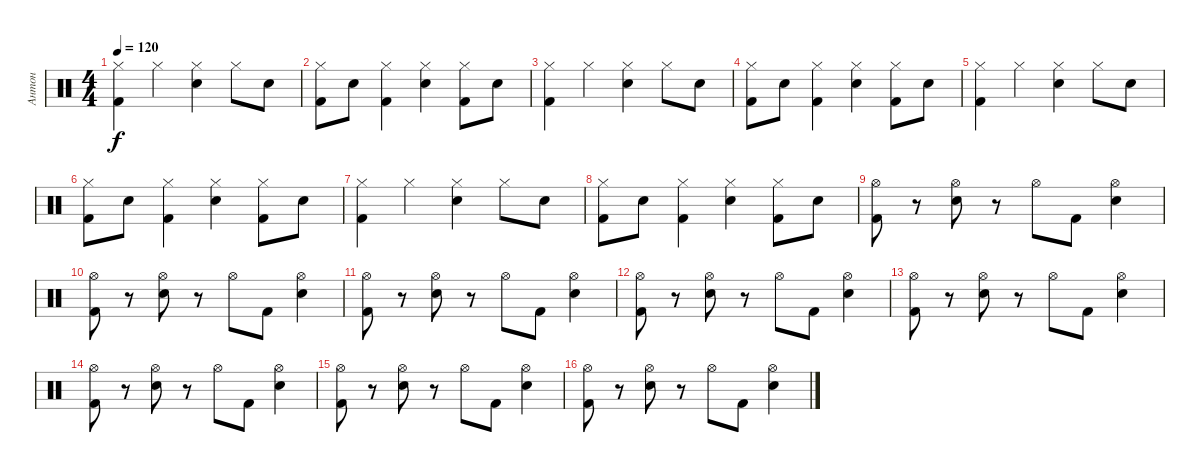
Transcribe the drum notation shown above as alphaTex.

\track ("Антон" "Антон") {instrument percussion}
\staff {score}
\articulation defaults
\ts (4 4)
\tempo 120
\clef neutral
\ks c
("Hi-Hat (closed)" "Kick (hit) 2").4{dy f} "Hi-Hat (closed)".4 ("Hi-Hat (closed)" "Electric Snare (hit)").4 "Hi-Hat (closed)".8 "Electric Snare (hit)".8 |
("Hi-Hat (closed)" "Kick (hit) 2").8 "Electric Snare (hit)".8 ("Hi-Hat (closed)" "Kick (hit) 2").4 ("Hi-Hat (closed)" "Electric Snare (hit)").4 ("Hi-Hat (closed)" "Kick (hit) 2").8 "Electric Snare (hit)".8 |
("Hi-Hat (closed)" "Kick (hit) 2").4 "Hi-Hat (closed)".4 ("Hi-Hat (closed)" "Electric Snare (hit)").4 "Hi-Hat (closed)".8 "Electric Snare (hit)".8 |
("Hi-Hat (closed)" "Kick (hit) 2").8 "Electric Snare (hit)".8 ("Hi-Hat (closed)" "Kick (hit) 2").4 ("Hi-Hat (closed)" "Electric Snare (hit)").4 ("Hi-Hat (closed)" "Kick (hit) 2").8 "Electric Snare (hit)".8 |
("Hi-Hat (closed)" "Kick (hit) 2").4 "Hi-Hat (closed)".4 ("Hi-Hat (closed)" "Electric Snare (hit)").4 "Hi-Hat (closed)".8 "Electric Snare (hit)".8 |
("Hi-Hat (closed)" "Kick (hit) 2").8 "Electric Snare (hit)".8 ("Hi-Hat (closed)" "Kick (hit) 2").4 ("Hi-Hat (closed)" "Electric Snare (hit)").4 ("Hi-Hat (closed)" "Kick (hit) 2").8 "Electric Snare (hit)".8 |
("Hi-Hat (closed)" "Kick (hit) 2").4 "Hi-Hat (closed)".4 ("Hi-Hat (closed)" "Electric Snare (hit)").4 "Hi-Hat (closed)".8 "Electric Snare (hit)".8 |
("Hi-Hat (closed)" "Kick (hit) 2").8 "Electric Snare (hit)".8 ("Hi-Hat (closed)" "Kick (hit) 2").4 ("Hi-Hat (closed)" "Electric Snare (hit)").4 ("Hi-Hat (closed)" "Kick (hit) 2").8 "Electric Snare (hit)".8 |
("Hi-Hat (open)" "Kick (hit) 2").8 r.8 ("Hi-Hat (open)" "Electric Snare (hit)").8 r.8 "Hi-Hat (open)".8 "Kick (hit) 2".8 ("Hi-Hat (open)" "Electric Snare (hit)").4 |
("Hi-Hat (open)" "Kick (hit) 2").8 r.8 ("Hi-Hat (open)" "Electric Snare (hit)").8 r.8 "Hi-Hat (open)".8 "Kick (hit) 2".8 ("Hi-Hat (open)" "Electric Snare (hit)").4 |
("Hi-Hat (open)" "Kick (hit) 2").8 r.8 ("Hi-Hat (open)" "Electric Snare (hit)").8 r.8 "Hi-Hat (open)".8 "Kick (hit) 2".8 ("Hi-Hat (open)" "Electric Snare (hit)").4 |
("Hi-Hat (open)" "Kick (hit) 2").8 r.8 ("Hi-Hat (open)" "Electric Snare (hit)").8 r.8 "Hi-Hat (open)".8 "Kick (hit) 2".8 ("Hi-Hat (open)" "Electric Snare (hit)").4 |
("Hi-Hat (open)" "Kick (hit) 2").8 r.8 ("Hi-Hat (open)" "Electric Snare (hit)").8 r.8 "Hi-Hat (open)".8 "Kick (hit) 2".8 ("Hi-Hat (open)" "Electric Snare (hit)").4 |
("Hi-Hat (open)" "Kick (hit) 2").8 r.8 ("Hi-Hat (open)" "Electric Snare (hit)").8 r.8 "Hi-Hat (open)".8 "Kick (hit) 2".8 ("Hi-Hat (open)" "Electric Snare (hit)").4 |
("Hi-Hat (open)" "Kick (hit) 2").8 r.8 ("Hi-Hat (open)" "Electric Snare (hit)").8 r.8 "Hi-Hat (open)".8 "Kick (hit) 2".8 ("Hi-Hat (open)" "Electric Snare (hit)").4 |
("Hi-Hat (open)" "Kick (hit) 2").8 r.8 ("Hi-Hat (open)" "Electric Snare (hit)").8 r.8 "Hi-Hat (open)".8 "Kick (hit) 2".8 ("Hi-Hat (open)" "Electric Snare (hit)").4
